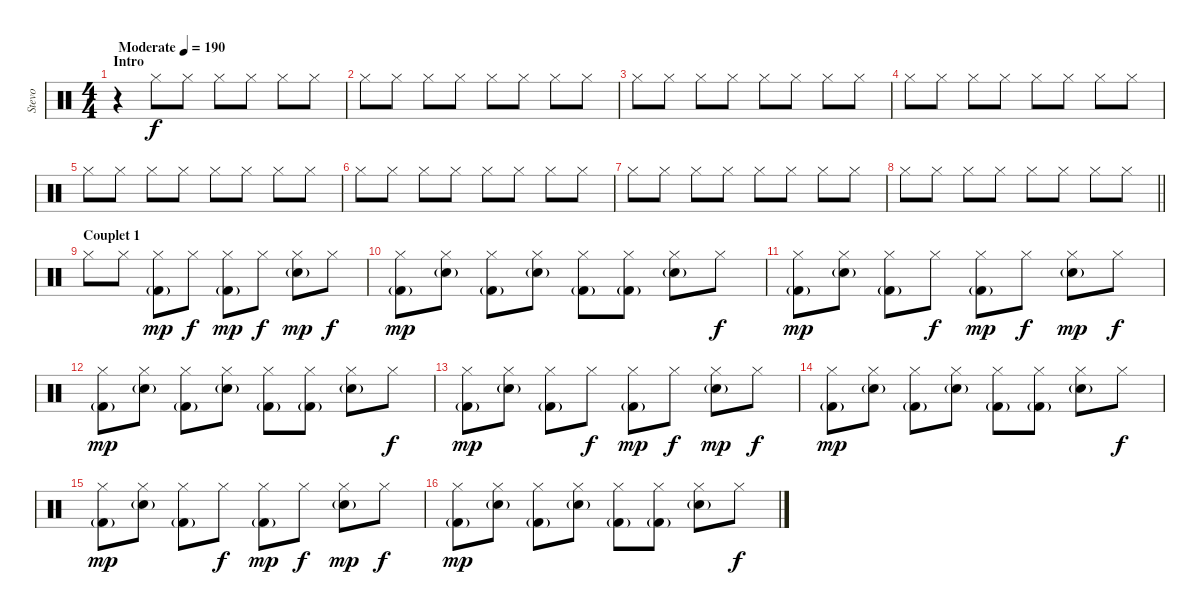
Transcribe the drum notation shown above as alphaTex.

\track ("Stevo" "Stevo") {instrument percussion}
\staff {score}
\articulation defaults
\ts (4 4)
\section ("" "Intro")
\tempo (190 "Moderate")
\clef neutral
\ks c
r.4{dy f} "Hi-Hat (closed)".8 "Hi-Hat (closed)".8 "Hi-Hat (closed)".8 "Hi-Hat (closed)".8 "Hi-Hat (closed)".8 "Hi-Hat (closed)".8 |
"Hi-Hat (closed)".8 "Hi-Hat (closed)".8 "Hi-Hat (closed)".8 "Hi-Hat (closed)".8 "Hi-Hat (closed)".8 "Hi-Hat (closed)".8 "Hi-Hat (closed)".8 "Hi-Hat (closed)".8 |
"Hi-Hat (closed)".8 "Hi-Hat (closed)".8 "Hi-Hat (closed)".8 "Hi-Hat (closed)".8 "Hi-Hat (closed)".8 "Hi-Hat (closed)".8 "Hi-Hat (closed)".8 "Hi-Hat (closed)".8 |
"Hi-Hat (closed)".8 "Hi-Hat (closed)".8 "Hi-Hat (closed)".8 "Hi-Hat (closed)".8 "Hi-Hat (closed)".8 "Hi-Hat (closed)".8 "Hi-Hat (closed)".8 "Hi-Hat (closed)".8 |
"Hi-Hat (closed)".8 "Hi-Hat (closed)".8 "Hi-Hat (closed)".8 "Hi-Hat (closed)".8 "Hi-Hat (closed)".8 "Hi-Hat (closed)".8 "Hi-Hat (closed)".8 "Hi-Hat (closed)".8 |
"Hi-Hat (closed)".8 "Hi-Hat (closed)".8 "Hi-Hat (closed)".8 "Hi-Hat (closed)".8 "Hi-Hat (closed)".8 "Hi-Hat (closed)".8 "Hi-Hat (closed)".8 "Hi-Hat (closed)".8 |
"Hi-Hat (closed)".8 "Hi-Hat (closed)".8 "Hi-Hat (closed)".8 "Hi-Hat (closed)".8 "Hi-Hat (closed)".8 "Hi-Hat (closed)".8 "Hi-Hat (closed)".8 "Hi-Hat (closed)".8 |
\barLineRight lightlight "Hi-Hat (closed)".8 "Hi-Hat (closed)".8 "Hi-Hat (closed)".8 "Hi-Hat (closed)".8 "Hi-Hat (closed)".8 "Hi-Hat (closed)".8 "Hi-Hat (closed)".8 "Hi-Hat (closed)".8
|
\section ("" "Couplet 1")
"Hi-Hat (closed)".8 "Hi-Hat (closed)".8 ("Hi-Hat (closed)" "Kick (hit) 2"{g}).8{dy mp} "Hi-Hat (closed)".8{dy f} ("Hi-Hat (closed)" "Kick (hit) 2"{g}).8{dy mp} "Hi-Hat (closed)".8{dy f} ("Hi-Hat (closed)" "Electric Snare (hit)"{g}).8{dy mp} "Hi-Hat (closed)".8{dy f} |
("Hi-Hat (closed)" "Kick (hit) 2"{g}).8{dy mp} ("Hi-Hat (closed)" "Electric Snare (hit)"{g}).8 ("Hi-Hat (closed)" "Kick (hit) 2"{g}).8 ("Hi-Hat (closed)" "Electric Snare (hit)"{g}).8 ("Hi-Hat (closed)" "Kick (hit) 2"{g}).8 ("Hi-Hat (closed)" "Kick (hit) 2"{g}).8 ("Hi-Hat (closed)" "Electric Snare (hit)"{g}).8 "Hi-Hat (closed)".8{dy f} |
("Hi-Hat (closed)" "Kick (hit) 2"{g}).8{dy mp} ("Hi-Hat (closed)" "Electric Snare (hit)"{g}).8 ("Hi-Hat (closed)" "Kick (hit) 2"{g}).8 "Hi-Hat (closed)".8{dy f} ("Hi-Hat (closed)" "Kick (hit) 2"{g}).8{dy mp} "Hi-Hat (closed)".8{dy f} ("Hi-Hat (closed)" "Electric Snare (hit)"{g}).8{dy mp} "Hi-Hat (closed)".8{dy f} |
("Hi-Hat (closed)" "Kick (hit) 2"{g}).8{dy mp} ("Hi-Hat (closed)" "Electric Snare (hit)"{g}).8 ("Hi-Hat (closed)" "Kick (hit) 2"{g}).8 ("Hi-Hat (closed)" "Electric Snare (hit)"{g}).8 ("Hi-Hat (closed)" "Kick (hit) 2"{g}).8 ("Hi-Hat (closed)" "Kick (hit) 2"{g}).8 ("Hi-Hat (closed)" "Electric Snare (hit)"{g}).8 "Hi-Hat (closed)".8{dy f} |
("Hi-Hat (closed)" "Kick (hit) 2"{g}).8{dy mp} ("Hi-Hat (closed)" "Electric Snare (hit)"{g}).8 ("Hi-Hat (closed)" "Kick (hit) 2"{g}).8 "Hi-Hat (closed)".8{dy f} ("Hi-Hat (closed)" "Kick (hit) 2"{g}).8{dy mp} "Hi-Hat (closed)".8{dy f} ("Hi-Hat (closed)" "Electric Snare (hit)"{g}).8{dy mp} "Hi-Hat (closed)".8{dy f} |
("Hi-Hat (closed)" "Kick (hit) 2"{g}).8{dy mp} ("Hi-Hat (closed)" "Electric Snare (hit)"{g}).8 ("Hi-Hat (closed)" "Kick (hit) 2"{g}).8 ("Hi-Hat (closed)" "Electric Snare (hit)"{g}).8 ("Hi-Hat (closed)" "Kick (hit) 2"{g}).8 ("Hi-Hat (closed)" "Kick (hit) 2"{g}).8 ("Hi-Hat (closed)" "Electric Snare (hit)"{g}).8 "Hi-Hat (closed)".8{dy f} |
("Hi-Hat (closed)" "Kick (hit) 2"{g}).8{dy mp} ("Hi-Hat (closed)" "Electric Snare (hit)"{g}).8 ("Hi-Hat (closed)" "Kick (hit) 2"{g}).8 "Hi-Hat (closed)".8{dy f} ("Hi-Hat (closed)" "Kick (hit) 2"{g}).8{dy mp} "Hi-Hat (closed)".8{dy f} ("Hi-Hat (closed)" "Electric Snare (hit)"{g}).8{dy mp} "Hi-Hat (closed)".8{dy f} |
("Hi-Hat (closed)" "Kick (hit) 2"{g}).8{dy mp} ("Hi-Hat (closed)" "Electric Snare (hit)"{g}).8 ("Hi-Hat (closed)" "Kick (hit) 2"{g}).8 ("Hi-Hat (closed)" "Electric Snare (hit)"{g}).8 ("Hi-Hat (closed)" "Kick (hit) 2"{g}).8 ("Hi-Hat (closed)" "Kick (hit) 2"{g}).8 ("Hi-Hat (closed)" "Electric Snare (hit)"{g}).8 "Hi-Hat (closed)".8{dy f}
